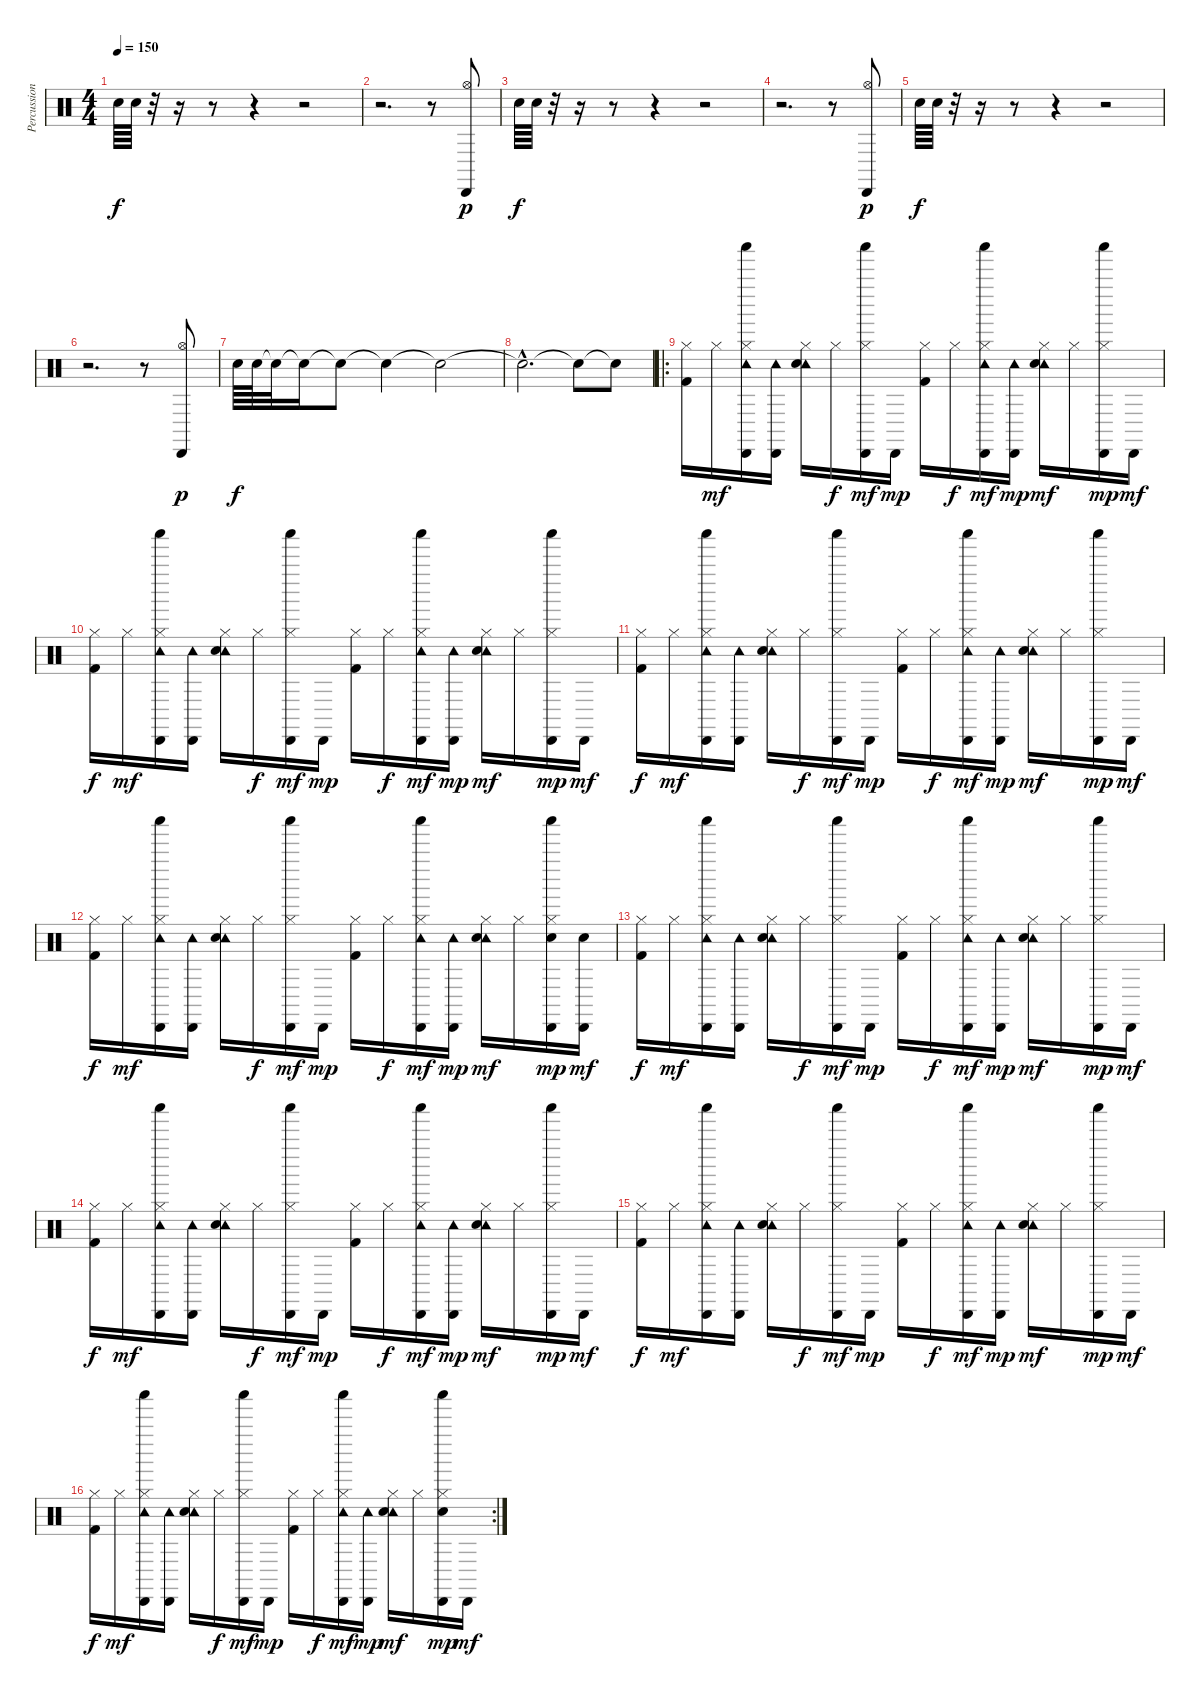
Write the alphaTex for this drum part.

\track ("Percussion" "Percussion") {instrument percussion}
\staff {score}
\articulation defaults
\ts (4 4)
\tempo 150
\clef neutral
\ks c "Electric Snare (hit)".64{dy f} "Electric Snare (hit)".64
r.32 r.16 r.8 r.4 r.2 |
r.2{d} r.8 ("Hi-Hat (open)" "Cabasa (hit)").8{dy p} |
"Electric Snare (hit)".64{dy f} "Electric Snare (hit)".64 r.32 r.16 r.8 r.4 r.2 |
r.2{d} r.8 ("Hi-Hat (open)" "Cabasa (hit)").8{dy p} |
"Electric Snare (hit)".64{dy f} "Electric Snare (hit)".64 r.32 r.16 r.8 r.4 r.2 |
r.2{d} r.8 ("Hi-Hat (open)" "Cabasa (hit)").8{dy p} |
"Electric Snare (hit)".64{dy f} "Electric Snare (hit)".64 "Snare (hit)"{t}.32 "Snare (hit)"{t}.16 "Snare (hit)"{t}.8 "Snare (hit)"{t}.4 "Snare (hit)"{t}.2 |
"Snare (hit)"{hac t}.2{d} "Snare (hit)"{t}.8 "Snare (hit)"{t}.8 |
\ro
("Hi-Hat (closed)" "Kick (hit) 2").16 "Hi-Hat (closed)".16{dy mf} ("Hi-Hat (closed)" "Tambourine (hit)" "Cabasa (hit)" "Shaker (hit)").16 ("Tambourine (hit)" "Cabasa (hit)").16 ("Hi-Hat (closed)" "Tambourine (hit)" "Electric Snare (hit)").16 "Hi-Hat (closed)".16{dy f} ("Hi-Hat (closed)" "Cabasa (hit)" "Shaker (hit)").16{dy mf} "Cabasa (hit)".16{dy mp} ("Hi-Hat (closed)" "Kick (hit) 2").16 "Hi-Hat (closed)".16{dy f} ("Hi-Hat (closed)" "Tambourine (hit)" "Cabasa (hit)" "Shaker (hit)").16{dy mf} ("Tambourine (hit)" "Cabasa (hit)").16{dy mp} ("Hi-Hat (closed)" "Tambourine (hit)" "Electric Snare (hit)").16{dy mf} "Hi-Hat (closed)".16 ("Hi-Hat (closed)" "Cabasa (hit)" "Shaker (hit)").16{dy mp} "Cabasa (hit)".16{dy mf} |
("Hi-Hat (closed)" "Kick (hit) 2").16{dy f} "Hi-Hat (closed)".16{dy mf} ("Hi-Hat (closed)" "Tambourine (hit)" "Cabasa (hit)" "Shaker (hit)").16 ("Tambourine (hit)" "Cabasa (hit)").16 ("Hi-Hat (closed)" "Tambourine (hit)" "Electric Snare (hit)").16 "Hi-Hat (closed)".16{dy f} ("Hi-Hat (closed)" "Cabasa (hit)" "Shaker (hit)").16{dy mf} "Cabasa (hit)".16{dy mp} ("Hi-Hat (closed)" "Kick (hit) 2").16 "Hi-Hat (closed)".16{dy f} ("Hi-Hat (closed)" "Tambourine (hit)" "Cabasa (hit)" "Shaker (hit)").16{dy mf} ("Tambourine (hit)" "Cabasa (hit)").16{dy mp} ("Hi-Hat (closed)" "Tambourine (hit)" "Electric Snare (hit)").16{dy mf} "Hi-Hat (closed)".16 ("Hi-Hat (closed)" "Cabasa (hit)" "Shaker (hit)").16{dy mp} "Cabasa (hit)".16{dy mf} |
("Hi-Hat (closed)" "Kick (hit) 2").16{dy f} "Hi-Hat (closed)".16{dy mf} ("Hi-Hat (closed)" "Tambourine (hit)" "Cabasa (hit)" "Shaker (hit)").16 ("Tambourine (hit)" "Cabasa (hit)").16 ("Hi-Hat (closed)" "Tambourine (hit)" "Electric Snare (hit)").16 "Hi-Hat (closed)".16{dy f} ("Hi-Hat (closed)" "Cabasa (hit)" "Shaker (hit)").16{dy mf} "Cabasa (hit)".16{dy mp} ("Hi-Hat (closed)" "Kick (hit) 2").16 "Hi-Hat (closed)".16{dy f} ("Hi-Hat (closed)" "Tambourine (hit)" "Cabasa (hit)" "Shaker (hit)").16{dy mf} ("Tambourine (hit)" "Cabasa (hit)").16{dy mp} ("Hi-Hat (closed)" "Tambourine (hit)" "Electric Snare (hit)").16{dy mf} "Hi-Hat (closed)".16 ("Hi-Hat (closed)" "Cabasa (hit)" "Shaker (hit)").16{dy mp} "Cabasa (hit)".16{dy mf} |
("Hi-Hat (closed)" "Kick (hit) 2").16{dy f} "Hi-Hat (closed)".16{dy mf} ("Hi-Hat (closed)" "Tambourine (hit)" "Cabasa (hit)" "Shaker (hit)").16 ("Tambourine (hit)" "Cabasa (hit)").16 ("Hi-Hat (closed)" "Tambourine (hit)" "Electric Snare (hit)").16 "Hi-Hat (closed)".16{dy f} ("Hi-Hat (closed)" "Cabasa (hit)" "Shaker (hit)").16{dy mf} "Cabasa (hit)".16{dy mp} ("Hi-Hat (closed)" "Kick (hit) 2").16 "Hi-Hat (closed)".16{dy f} ("Hi-Hat (closed)" "Tambourine (hit)" "Cabasa (hit)" "Shaker (hit)").16{dy mf} ("Tambourine (hit)" "Cabasa (hit)").16{dy mp} ("Hi-Hat (closed)" "Tambourine (hit)" "Electric Snare (hit)").16{dy mf} "Hi-Hat (closed)".16 ("Hi-Hat (closed)" "Electric Snare (hit)" "Cabasa (hit)" "Shaker (hit)").16{dy mp} ("Electric Snare (hit)" "Cabasa (hit)").16{dy mf} |
("Hi-Hat (closed)" "Kick (hit) 2").16{dy f} "Hi-Hat (closed)".16{dy mf} ("Hi-Hat (closed)" "Tambourine (hit)" "Cabasa (hit)" "Shaker (hit)").16 ("Tambourine (hit)" "Cabasa (hit)").16 ("Hi-Hat (closed)" "Tambourine (hit)" "Electric Snare (hit)").16 "Hi-Hat (closed)".16{dy f} ("Hi-Hat (closed)" "Cabasa (hit)" "Shaker (hit)").16{dy mf} "Cabasa (hit)".16{dy mp} ("Hi-Hat (closed)" "Kick (hit) 2").16 "Hi-Hat (closed)".16{dy f} ("Hi-Hat (closed)" "Tambourine (hit)" "Cabasa (hit)" "Shaker (hit)").16{dy mf} ("Tambourine (hit)" "Cabasa (hit)").16{dy mp} ("Hi-Hat (closed)" "Tambourine (hit)" "Electric Snare (hit)").16{dy mf} "Hi-Hat (closed)".16 ("Hi-Hat (closed)" "Cabasa (hit)" "Shaker (hit)").16{dy mp} "Cabasa (hit)".16{dy mf} |
("Hi-Hat (closed)" "Kick (hit) 2").16{dy f} "Hi-Hat (closed)".16{dy mf} ("Hi-Hat (closed)" "Tambourine (hit)" "Cabasa (hit)" "Shaker (hit)").16 ("Tambourine (hit)" "Cabasa (hit)").16 ("Hi-Hat (closed)" "Tambourine (hit)" "Electric Snare (hit)").16 "Hi-Hat (closed)".16{dy f} ("Hi-Hat (closed)" "Cabasa (hit)" "Shaker (hit)").16{dy mf} "Cabasa (hit)".16{dy mp} ("Hi-Hat (closed)" "Kick (hit) 2").16 "Hi-Hat (closed)".16{dy f} ("Hi-Hat (closed)" "Tambourine (hit)" "Cabasa (hit)" "Shaker (hit)").16{dy mf} ("Tambourine (hit)" "Cabasa (hit)").16{dy mp} ("Hi-Hat (closed)" "Tambourine (hit)" "Electric Snare (hit)").16{dy mf} "Hi-Hat (closed)".16 ("Hi-Hat (closed)" "Cabasa (hit)" "Shaker (hit)").16{dy mp} "Cabasa (hit)".16{dy mf} |
("Hi-Hat (closed)" "Kick (hit) 2").16{dy f} "Hi-Hat (closed)".16{dy mf} ("Hi-Hat (closed)" "Tambourine (hit)" "Cabasa (hit)" "Shaker (hit)").16 ("Tambourine (hit)" "Cabasa (hit)").16 ("Hi-Hat (closed)" "Tambourine (hit)" "Electric Snare (hit)").16 "Hi-Hat (closed)".16{dy f} ("Hi-Hat (closed)" "Cabasa (hit)" "Shaker (hit)").16{dy mf} "Cabasa (hit)".16{dy mp} ("Hi-Hat (closed)" "Kick (hit) 2").16 "Hi-Hat (closed)".16{dy f} ("Hi-Hat (closed)" "Tambourine (hit)" "Cabasa (hit)" "Shaker (hit)").16{dy mf} ("Tambourine (hit)" "Cabasa (hit)").16{dy mp} ("Hi-Hat (closed)" "Tambourine (hit)" "Electric Snare (hit)").16{dy mf} "Hi-Hat (closed)".16 ("Hi-Hat (closed)" "Cabasa (hit)" "Shaker (hit)").16{dy mp} "Cabasa (hit)".16{dy mf} |
\rc 2
("Hi-Hat (closed)" "Kick (hit) 2").16{dy f} "Hi-Hat (closed)".16{dy mf} ("Hi-Hat (closed)" "Tambourine (hit)" "Cabasa (hit)" "Shaker (hit)").16 ("Tambourine (hit)" "Cabasa (hit)").16 ("Hi-Hat (closed)" "Tambourine (hit)" "Electric Snare (hit)").16 "Hi-Hat (closed)".16{dy f} ("Hi-Hat (closed)" "Cabasa (hit)" "Shaker (hit)").16{dy mf} "Cabasa (hit)".16{dy mp} ("Hi-Hat (closed)" "Kick (hit) 2").16 "Hi-Hat (closed)".16{dy f} ("Hi-Hat (closed)" "Tambourine (hit)" "Cabasa (hit)" "Shaker (hit)").16{dy mf} ("Tambourine (hit)" "Cabasa (hit)").16{dy mp} ("Hi-Hat (closed)" "Tambourine (hit)" "Electric Snare (hit)").16{dy mf} "Hi-Hat (closed)".16 ("Hi-Hat (closed)" "Electric Snare (hit)" "Cabasa (hit)" "Shaker (hit)").16{dy mp} "Cabasa (hit)".16{dy mf}
